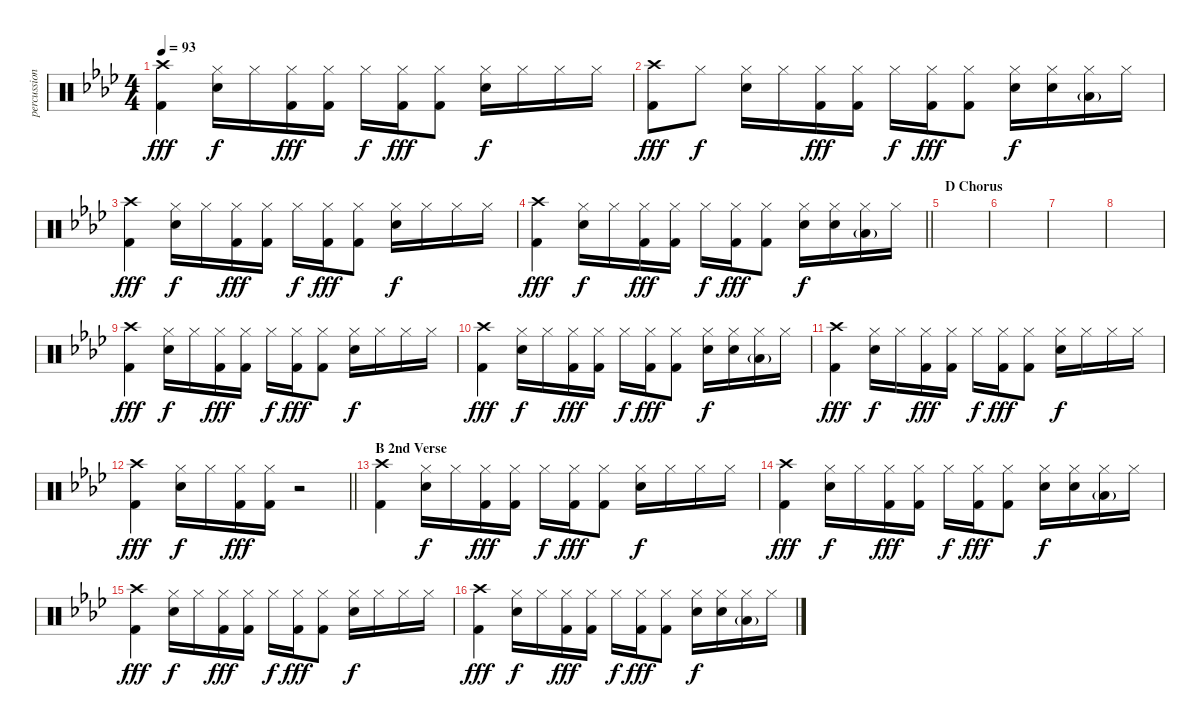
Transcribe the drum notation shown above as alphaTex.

\track ("percussion" "percussion") {instrument percussion}
\staff {score}
\articulation defaults
\ts (4 4)
\tempo 93
\clef neutral
\ks fminor
("Crash high (hit)" "Kick (hit) 2").4{dy fff} ("Snare (hit) 2" "Hi-Hat (closed)").16{dy f} "Hi-Hat (closed)".16 ("Hi-Hat (closed)" "Kick (hit) 2").16{dy fff} ("Hi-Hat (closed)" "Kick (hit) 2").16 "Hi-Hat (closed)".16{dy f} ("Hi-Hat (closed)" "Kick (hit) 2").16{dy fff} ("Hi-Hat (closed)" "Kick (hit) 2").8 ("Snare (hit) 2" "Hi-Hat (closed)").16{dy f} "Hi-Hat (closed)".16 "Hi-Hat (closed)".16 "Hi-Hat (closed)".16 |
("Crash high (hit)" "Kick (hit) 2").8{dy fff} "Hi-Hat (closed)".8{dy f} ("Snare (hit) 2" "Hi-Hat (closed)").16 "Hi-Hat (closed)".16 ("Hi-Hat (closed)" "Kick (hit) 2").16{dy fff} ("Hi-Hat (closed)" "Kick (hit) 2").16 "Hi-Hat (closed)".16{dy f} ("Hi-Hat (closed)" "Kick (hit) 2").16{dy fff} ("Hi-Hat (closed)" "Kick (hit) 2").8 ("Snare (hit) 2" "Hi-Hat (closed)").16{dy f} ("Snare (hit) 2" "Hi-Hat (closed)").16 ("Low Floor Tom (hit)"{g} "Hi-Hat (closed)").16 "Hi-Hat (closed)".16 |
("Crash high (hit)" "Kick (hit) 2").4{dy fff} ("Snare (hit) 2" "Hi-Hat (closed)").16{dy f} "Hi-Hat (closed)".16 ("Hi-Hat (closed)" "Kick (hit) 2").16{dy fff} ("Hi-Hat (closed)" "Kick (hit) 2").16 "Hi-Hat (closed)".16{dy f} ("Hi-Hat (closed)" "Kick (hit) 2").16{dy fff} ("Hi-Hat (closed)" "Kick (hit) 2").8 ("Snare (hit) 2" "Hi-Hat (closed)").16{dy f} "Hi-Hat (closed)".16 "Hi-Hat (closed)".16 "Hi-Hat (closed)".16 |
\barLineRight lightlight
("Crash high (hit)" "Kick (hit) 2").4{dy fff} ("Snare (hit) 2" "Hi-Hat (closed)").16{dy f} "Hi-Hat (closed)".16 ("Hi-Hat (closed)" "Kick (hit) 2").16{dy fff} ("Hi-Hat (closed)" "Kick (hit) 2").16 "Hi-Hat (closed)".16{dy f} ("Hi-Hat (closed)" "Kick (hit) 2").16{dy fff} ("Hi-Hat (closed)" "Kick (hit) 2").8 ("Snare (hit) 2" "Hi-Hat (closed)").16{dy f} ("Snare (hit) 2" "Hi-Hat (closed)").16 ("Low Floor Tom (hit)"{g} "Hi-Hat (closed)").16 "Hi-Hat (closed)".16 |
\section ("" "D Chorus")
|
|
|
|
("Crash high (hit)" "Kick (hit) 2").4{dy fff} ("Snare (hit) 2" "Hi-Hat (closed)").16{dy f} "Hi-Hat (closed)".16 ("Hi-Hat (closed)" "Kick (hit) 2").16{dy fff} ("Hi-Hat (closed)" "Kick (hit) 2").16 "Hi-Hat (closed)".16{dy f} ("Hi-Hat (closed)" "Kick (hit) 2").16{dy fff} ("Hi-Hat (closed)" "Kick (hit) 2").8 ("Snare (hit) 2" "Hi-Hat (closed)").16{dy f} "Hi-Hat (closed)".16 "Hi-Hat (closed)".16 "Hi-Hat (closed)".16 |
("Crash high (hit)" "Kick (hit) 2").4{dy fff} ("Snare (hit) 2" "Hi-Hat (closed)").16{dy f} "Hi-Hat (closed)".16 ("Hi-Hat (closed)" "Kick (hit) 2").16{dy fff} ("Hi-Hat (closed)" "Kick (hit) 2").16 "Hi-Hat (closed)".16{dy f} ("Hi-Hat (closed)" "Kick (hit) 2").16{dy fff} ("Hi-Hat (closed)" "Kick (hit) 2").8 ("Snare (hit) 2" "Hi-Hat (closed)").16{dy f} ("Snare (hit) 2" "Hi-Hat (closed)").16 ("Low Floor Tom (hit)"{g} "Hi-Hat (closed)").16 "Hi-Hat (closed)".16 |
("Crash high (hit)" "Kick (hit) 2").4{dy fff} ("Snare (hit) 2" "Hi-Hat (closed)").16{dy f} "Hi-Hat (closed)".16 ("Hi-Hat (closed)" "Kick (hit) 2").16{dy fff} ("Hi-Hat (closed)" "Kick (hit) 2").16 "Hi-Hat (closed)".16{dy f} ("Hi-Hat (closed)" "Kick (hit) 2").16{dy fff} ("Hi-Hat (closed)" "Kick (hit) 2").8 ("Snare (hit) 2" "Hi-Hat (closed)").16{dy f} "Hi-Hat (closed)".16 "Hi-Hat (closed)".16 "Hi-Hat (closed)".16 |
\barLineRight lightlight
("Crash high (hit)" "Kick (hit) 2").4{dy fff} ("Snare (hit) 2" "Hi-Hat (closed)").16{dy f} "Hi-Hat (closed)".16 ("Hi-Hat (closed)" "Kick (hit) 2").16{dy fff} ("Hi-Hat (closed)" "Kick (hit) 2").16 r.2 |
\section ("" "B 2nd Verse")
("Crash high (hit)" "Kick (hit) 2").4 ("Snare (hit) 2" "Hi-Hat (closed)").16{dy f} "Hi-Hat (closed)".16 ("Hi-Hat (closed)" "Kick (hit) 2").16{dy fff} ("Hi-Hat (closed)" "Kick (hit) 2").16 "Hi-Hat (closed)".16{dy f} ("Hi-Hat (closed)" "Kick (hit) 2").16{dy fff} ("Hi-Hat (closed)" "Kick (hit) 2").8 ("Snare (hit) 2" "Hi-Hat (closed)").16{dy f} "Hi-Hat (closed)".16 "Hi-Hat (closed)".16 "Hi-Hat (closed)".16 |
("Crash high (hit)" "Kick (hit) 2").4{dy fff} ("Snare (hit) 2" "Hi-Hat (closed)").16{dy f} "Hi-Hat (closed)".16 ("Hi-Hat (closed)" "Kick (hit) 2").16{dy fff} ("Hi-Hat (closed)" "Kick (hit) 2").16 "Hi-Hat (closed)".16{dy f} ("Hi-Hat (closed)" "Kick (hit) 2").16{dy fff} ("Hi-Hat (closed)" "Kick (hit) 2").8 ("Snare (hit) 2" "Hi-Hat (closed)").16{dy f} ("Snare (hit) 2" "Hi-Hat (closed)").16 ("Low Floor Tom (hit)"{g} "Hi-Hat (closed)").16 "Hi-Hat (closed)".16 |
("Crash high (hit)" "Kick (hit) 2").4{dy fff} ("Snare (hit) 2" "Hi-Hat (closed)").16{dy f} "Hi-Hat (closed)".16 ("Hi-Hat (closed)" "Kick (hit) 2").16{dy fff} ("Hi-Hat (closed)" "Kick (hit) 2").16 "Hi-Hat (closed)".16{dy f} ("Hi-Hat (closed)" "Kick (hit) 2").16{dy fff} ("Hi-Hat (closed)" "Kick (hit) 2").8 ("Snare (hit) 2" "Hi-Hat (closed)").16{dy f} "Hi-Hat (closed)".16 "Hi-Hat (closed)".16 "Hi-Hat (closed)".16 |
("Crash high (hit)" "Kick (hit) 2").4{dy fff} ("Snare (hit) 2" "Hi-Hat (closed)").16{dy f} "Hi-Hat (closed)".16 ("Hi-Hat (closed)" "Kick (hit) 2").16{dy fff} ("Hi-Hat (closed)" "Kick (hit) 2").16 "Hi-Hat (closed)".16{dy f} ("Hi-Hat (closed)" "Kick (hit) 2").16{dy fff} ("Hi-Hat (closed)" "Kick (hit) 2").8 ("Snare (hit) 2" "Hi-Hat (closed)").16{dy f} ("Snare (hit) 2" "Hi-Hat (closed)").16 ("Low Floor Tom (hit)"{g} "Hi-Hat (closed)").16 "Hi-Hat (closed)".16
